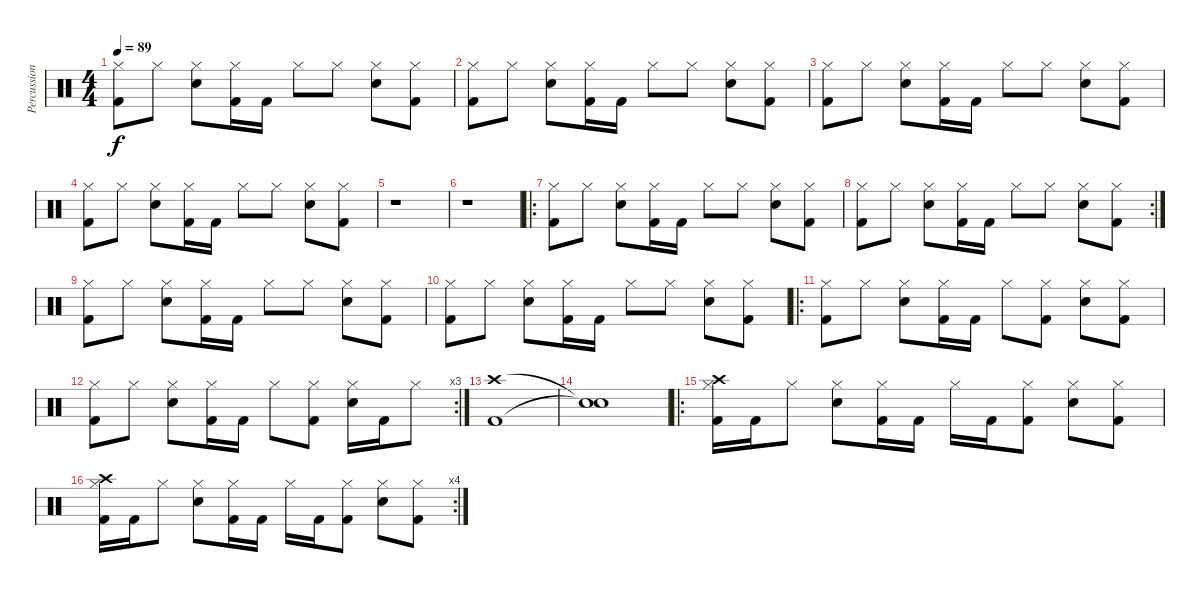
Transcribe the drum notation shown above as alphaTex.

\track ("Percussion" "Percussion") {instrument percussion}
\staff {score}
\articulation defaults
\ts (4 4)
\tempo 89
\clef neutral
\ks c
("Hi-Hat (closed)" "Kick (hit) 2").8{dy f} "Hi-Hat (closed)".8 ("Hi-Hat (closed)" "Electric Snare (hit)").8 ("Hi-Hat (closed)" "Kick (hit) 2").16 "Kick (hit) 2".16 "Hi-Hat (closed)".8 "Hi-Hat (closed)".8 ("Hi-Hat (closed)" "Electric Snare (hit)").8 ("Hi-Hat (closed)" "Kick (hit) 2").8 |
("Hi-Hat (closed)" "Kick (hit) 2").8 "Hi-Hat (closed)".8 ("Hi-Hat (closed)" "Electric Snare (hit)").8 ("Hi-Hat (closed)" "Kick (hit) 2").16 "Kick (hit) 2".16 "Hi-Hat (closed)".8 "Hi-Hat (closed)".8 ("Hi-Hat (closed)" "Electric Snare (hit)").8 ("Hi-Hat (closed)" "Kick (hit) 2").8 |
("Hi-Hat (closed)" "Kick (hit) 2").8 "Hi-Hat (closed)".8 ("Hi-Hat (closed)" "Electric Snare (hit)").8 ("Hi-Hat (closed)" "Kick (hit) 2").16 "Kick (hit) 2".16 "Hi-Hat (closed)".8 "Hi-Hat (closed)".8 ("Hi-Hat (closed)" "Electric Snare (hit)").8 ("Hi-Hat (closed)" "Kick (hit) 2").8 |
("Hi-Hat (closed)" "Kick (hit) 2").8 "Hi-Hat (closed)".8 ("Hi-Hat (closed)" "Electric Snare (hit)").8 ("Hi-Hat (closed)" "Kick (hit) 2").16 "Kick (hit) 2".16 "Hi-Hat (closed)".8 "Hi-Hat (closed)".8 ("Hi-Hat (closed)" "Electric Snare (hit)").8 ("Hi-Hat (closed)" "Kick (hit) 2").8 |
r.1 |
r.1 |
\ro
("Hi-Hat (closed)" "Kick (hit) 2").8 "Hi-Hat (closed)".8 ("Hi-Hat (closed)" "Electric Snare (hit)").8 ("Hi-Hat (closed)" "Kick (hit) 2").16 "Kick (hit) 2".16 "Hi-Hat (closed)".8 "Hi-Hat (closed)".8 ("Hi-Hat (closed)" "Electric Snare (hit)").8 ("Hi-Hat (closed)" "Kick (hit) 2").8 |
\rc 2
("Hi-Hat (closed)" "Kick (hit) 2").8 "Hi-Hat (closed)".8 ("Hi-Hat (closed)" "Electric Snare (hit)").8 ("Hi-Hat (closed)" "Kick (hit) 2").16 "Kick (hit) 2".16 "Hi-Hat (closed)".8 "Hi-Hat (closed)".8 ("Hi-Hat (closed)" "Electric Snare (hit)").8 ("Hi-Hat (closed)" "Kick (hit) 2").8 |
("Hi-Hat (closed)" "Kick (hit) 2").8 "Hi-Hat (closed)".8 ("Hi-Hat (closed)" "Electric Snare (hit)").8 ("Hi-Hat (closed)" "Kick (hit) 2").16 "Kick (hit) 2".16 "Hi-Hat (closed)".8 "Hi-Hat (closed)".8 ("Hi-Hat (closed)" "Electric Snare (hit)").8 ("Hi-Hat (closed)" "Kick (hit) 2").8 |
("Hi-Hat (closed)" "Kick (hit) 2").8 "Hi-Hat (closed)".8 ("Hi-Hat (closed)" "Electric Snare (hit)").8 ("Hi-Hat (closed)" "Kick (hit) 2").16 "Kick (hit) 2".16 "Hi-Hat (closed)".8 "Hi-Hat (closed)".8 ("Hi-Hat (closed)" "Electric Snare (hit)").8 ("Hi-Hat (closed)" "Kick (hit) 2").8 |
\ro
("Hi-Hat (closed)" "Kick (hit) 2").8 "Hi-Hat (closed)".8 ("Hi-Hat (closed)" "Electric Snare (hit)").8 ("Hi-Hat (closed)" "Kick (hit) 2").16 "Kick (hit) 2".16 "Hi-Hat (closed)".8 ("Hi-Hat (closed)" "Kick (hit) 2").8 ("Hi-Hat (closed)" "Electric Snare (hit)").8 ("Hi-Hat (closed)" "Kick (hit) 2").8 |
\rc 3
("Hi-Hat (closed)" "Kick (hit) 2").8 "Hi-Hat (closed)".8 ("Hi-Hat (closed)" "Electric Snare (hit)").8 ("Hi-Hat (closed)" "Kick (hit) 2").16 "Kick (hit) 2".16 "Hi-Hat (closed)".8 ("Hi-Hat (closed)" "Kick (hit) 2").8 ("Hi-Hat (closed)" "Electric Snare (hit)").16 "Kick (hit) 2".16 "Hi-Hat (closed)".8 |
("Crash high (hit)" "Kick (hit) 2").1 |
("Snare (hit)"{t} "Snare (hit)"{t}).1 |
\ro
("Crash high (hit)" "Hi-Hat (closed)" "Kick (hit) 2").16 "Kick (hit) 2".16 "Hi-Hat (closed)".8 ("Hi-Hat (closed)" "Snare (hit) 2").8 ("Hi-Hat (closed)" "Kick (hit) 2").16 "Kick (hit) 2".16 "Hi-Hat (closed)".16 "Kick (hit) 2".16 ("Hi-Hat (closed)" "Kick (hit) 2").8 ("Hi-Hat (closed)" "Snare (hit) 2").8 ("Hi-Hat (closed)" "Kick (hit) 2").8 |
\rc 4
("Crash high (hit)" "Hi-Hat (closed)" "Kick (hit) 2").16 "Kick (hit) 2".16 "Hi-Hat (closed)".8 ("Hi-Hat (closed)" "Snare (hit) 2").8 ("Hi-Hat (closed)" "Kick (hit) 2").16 "Kick (hit) 2".16 "Hi-Hat (closed)".16 "Kick (hit) 2".16 ("Hi-Hat (closed)" "Kick (hit) 2").8 ("Hi-Hat (closed)" "Snare (hit) 2").8 ("Hi-Hat (closed)" "Kick (hit) 2").8
